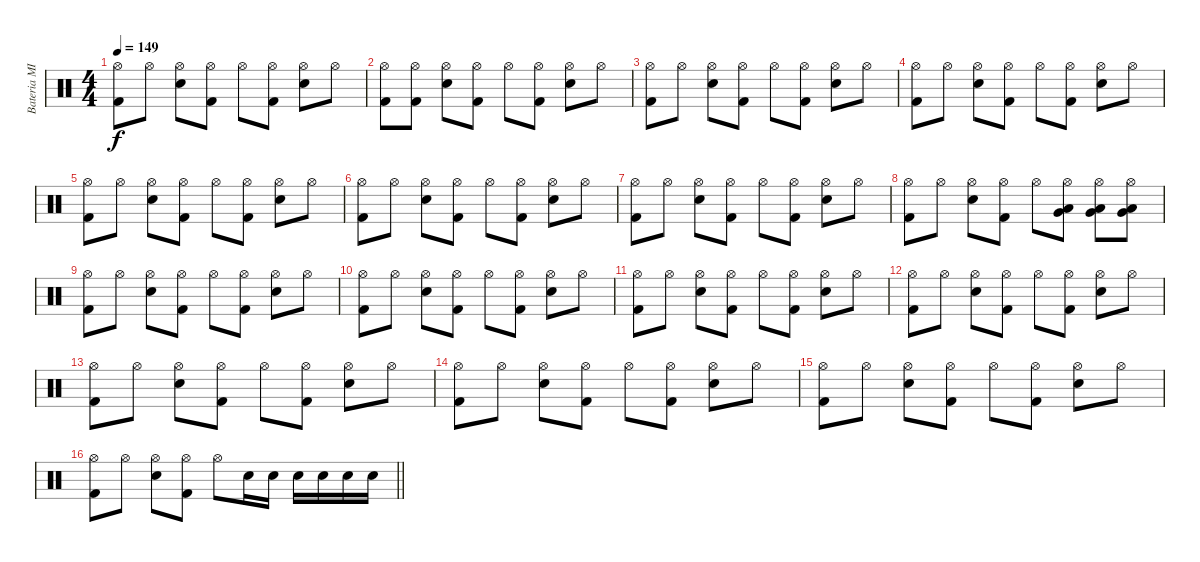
\track ("Bateria MIDI" "Bateria MI") {instrument percussion}
\staff {score}
\articulation defaults
\ts (4 4)
\tempo 149
\clef neutral
\ks c
("Hi-Hat (open)" "Kick (hit) 2").8{dy f} "Hi-Hat (open)".8 ("Hi-Hat (open)" "Snare (hit) 2").8 ("Hi-Hat (open)" "Kick (hit) 2").8 "Hi-Hat (open)".8 ("Hi-Hat (open)" "Kick (hit) 2").8 ("Hi-Hat (open)" "Snare (hit) 2").8 "Hi-Hat (open)".8 |
("Hi-Hat (open)" "Kick (hit) 2").8 ("Hi-Hat (open)" "Kick (hit) 2").8 ("Hi-Hat (open)" "Snare (hit) 2").8 ("Hi-Hat (open)" "Kick (hit) 2").8 "Hi-Hat (open)".8 ("Hi-Hat (open)" "Kick (hit) 2").8 ("Hi-Hat (open)" "Snare (hit) 2").8 "Hi-Hat (open)".8 |
("Hi-Hat (open)" "Kick (hit) 2").8 "Hi-Hat (open)".8 ("Hi-Hat (open)" "Snare (hit) 2").8 ("Hi-Hat (open)" "Kick (hit) 2").8 "Hi-Hat (open)".8 ("Hi-Hat (open)" "Kick (hit) 2").8 ("Hi-Hat (open)" "Snare (hit) 2").8 "Hi-Hat (open)".8 |
("Hi-Hat (open)" "Kick (hit) 2").8 "Hi-Hat (open)".8 ("Hi-Hat (open)" "Snare (hit) 2").8 ("Hi-Hat (open)" "Kick (hit) 2").8 "Hi-Hat (open)".8 ("Hi-Hat (open)" "Kick (hit) 2").8 ("Hi-Hat (open)" "Snare (hit) 2").8 "Hi-Hat (open)".8 |
("Hi-Hat (open)" "Kick (hit) 2").8 "Hi-Hat (open)".8 ("Hi-Hat (open)" "Snare (hit) 2").8 ("Hi-Hat (open)" "Kick (hit) 2").8 "Hi-Hat (open)".8 ("Hi-Hat (open)" "Kick (hit) 2").8 ("Hi-Hat (open)" "Snare (hit) 2").8 "Hi-Hat (open)".8 |
("Hi-Hat (open)" "Kick (hit) 2").8 "Hi-Hat (open)".8 ("Hi-Hat (open)" "Snare (hit) 2").8 ("Hi-Hat (open)" "Kick (hit) 2").8 "Hi-Hat (open)".8 ("Hi-Hat (open)" "Kick (hit) 2").8 ("Hi-Hat (open)" "Snare (hit) 2").8 "Hi-Hat (open)".8 |
("Hi-Hat (open)" "Kick (hit) 2").8 "Hi-Hat (open)".8 ("Hi-Hat (open)" "Snare (hit) 2").8 ("Hi-Hat (open)" "Kick (hit) 2").8 "Hi-Hat (open)".8 ("Hi-Hat (open)" "Kick (hit) 2").8 ("Hi-Hat (open)" "Snare (hit) 2").8 "Hi-Hat (open)".8 |
("Hi-Hat (open)" "Kick (hit) 2").8 "Hi-Hat (open)".8 ("Hi-Hat (open)" "Snare (hit) 2").8 ("Hi-Hat (open)" "Kick (hit) 2").8 "Hi-Hat (open)".8 ("Hi-Hat (open)" "Low Tom (hit)" "Very Low Tom (hit)").8 ("Hi-Hat (open)" "Low Tom (hit)" "Very Low Tom (hit)").8 ("Hi-Hat (open)" "Low Tom (hit)" "Very Low Tom (hit)").8 |
("Hi-Hat (open)" "Kick (hit) 2").8 "Hi-Hat (open)".8 ("Hi-Hat (open)" "Snare (hit) 2").8 ("Hi-Hat (open)" "Kick (hit) 2").8 "Hi-Hat (open)".8 ("Hi-Hat (open)" "Kick (hit) 2").8 ("Hi-Hat (open)" "Snare (hit) 2").8 "Hi-Hat (open)".8 |
("Hi-Hat (open)" "Kick (hit) 2").8 "Hi-Hat (open)".8 ("Hi-Hat (open)" "Snare (hit) 2").8 ("Hi-Hat (open)" "Kick (hit) 2").8 "Hi-Hat (open)".8 ("Hi-Hat (open)" "Kick (hit) 2").8 ("Hi-Hat (open)" "Snare (hit) 2").8 "Hi-Hat (open)".8 |
("Hi-Hat (open)" "Kick (hit) 2").8 "Hi-Hat (open)".8 ("Hi-Hat (open)" "Snare (hit) 2").8 ("Hi-Hat (open)" "Kick (hit) 2").8 "Hi-Hat (open)".8 ("Hi-Hat (open)" "Kick (hit) 2").8 ("Hi-Hat (open)" "Snare (hit) 2").8 "Hi-Hat (open)".8 |
("Hi-Hat (open)" "Kick (hit) 2").8 "Hi-Hat (open)".8 ("Hi-Hat (open)" "Snare (hit) 2").8 ("Hi-Hat (open)" "Kick (hit) 2").8 "Hi-Hat (open)".8 ("Hi-Hat (open)" "Kick (hit) 2").8 ("Hi-Hat (open)" "Snare (hit) 2").8 "Hi-Hat (open)".8 |
("Hi-Hat (open)" "Kick (hit) 2").8 "Hi-Hat (open)".8 ("Hi-Hat (open)" "Snare (hit) 2").8 ("Hi-Hat (open)" "Kick (hit) 2").8 "Hi-Hat (open)".8 ("Hi-Hat (open)" "Kick (hit) 2").8 ("Hi-Hat (open)" "Snare (hit) 2").8 "Hi-Hat (open)".8 |
("Hi-Hat (open)" "Kick (hit) 2").8 "Hi-Hat (open)".8 ("Hi-Hat (open)" "Snare (hit) 2").8 ("Hi-Hat (open)" "Kick (hit) 2").8 "Hi-Hat (open)".8 ("Hi-Hat (open)" "Kick (hit) 2").8 ("Hi-Hat (open)" "Snare (hit) 2").8 "Hi-Hat (open)".8 |
("Hi-Hat (open)" "Kick (hit) 2").8 "Hi-Hat (open)".8 ("Hi-Hat (open)" "Snare (hit) 2").8 ("Hi-Hat (open)" "Kick (hit) 2").8 "Hi-Hat (open)".8 ("Hi-Hat (open)" "Kick (hit) 2").8 ("Hi-Hat (open)" "Snare (hit) 2").8 "Hi-Hat (open)".8 |
\barLineRight lightlight
("Hi-Hat (open)" "Kick (hit) 2").8 "Hi-Hat (open)".8 ("Hi-Hat (open)" "Snare (hit) 2").8 ("Hi-Hat (open)" "Kick (hit) 2").8 "Hi-Hat (open)".8 "Snare (hit) 2".16 "Snare (hit) 2".16 "Snare (hit) 2".16 "Snare (hit) 2".16 "Snare (hit) 2".16 "Snare (hit) 2".16
